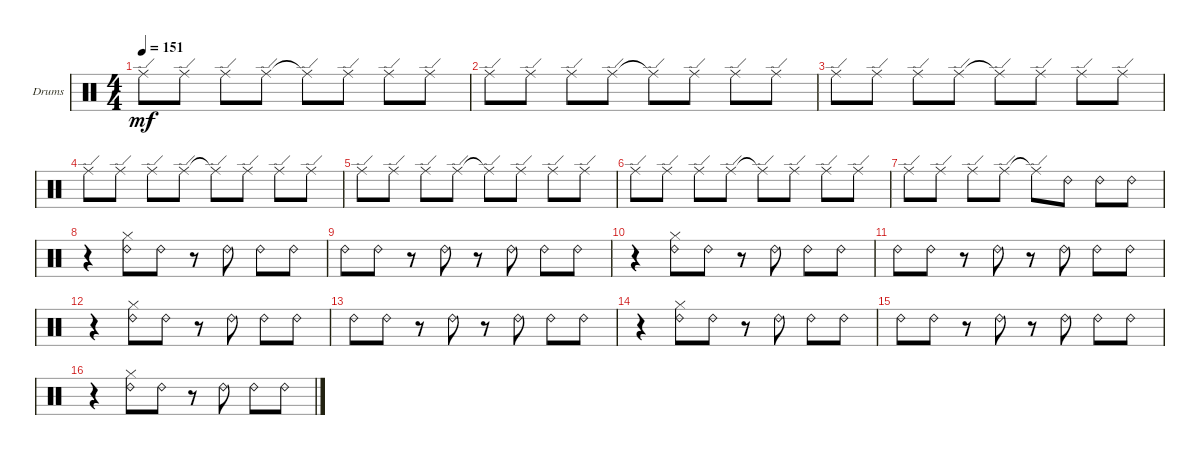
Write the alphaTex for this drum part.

\bracketExtendMode groupsimilarinstruments
\firstSystemTrackNameOrientation horizontal
\otherSystemsTrackNameOrientation horizontal
\track ("Drumkit" "Drums") {instrument percussion}
\staff {score}
\articulation defaults
\ts (4 4)
\tempo 151
\clef neutral
\ks aminor "Ride (edge)".8{dy mf} "Ride (edge)".8 "Ride (edge)".8 "Ride (edge)".8 "Ride (edge)"{t}.8 "Ride (edge)".8 "Ride (edge)".8 "Ride (edge)".8
|
"Ride (edge)".8 "Ride (edge)".8 "Ride (edge)".8 "Ride (edge)".8 "Ride (edge)"{t}.8 "Ride (edge)".8 "Ride (edge)".8 "Ride (edge)".8 |
"Ride (edge)".8 "Ride (edge)".8 "Ride (edge)".8 "Ride (edge)".8 "Ride (edge)"{t}.8 "Ride (edge)".8 "Ride (edge)".8 "Ride (edge)".8 |
"Ride (edge)".8 "Ride (edge)".8 "Ride (edge)".8 "Ride (edge)".8 "Ride (edge)"{t}.8 "Ride (edge)".8 "Ride (edge)".8 "Ride (edge)".8 |
"Ride (edge)".8 "Ride (edge)".8 "Ride (edge)".8 "Ride (edge)".8 "Ride (edge)"{t}.8 "Ride (edge)".8 "Ride (edge)".8 "Ride (edge)".8 |
"Ride (edge)".8 "Ride (edge)".8 "Ride (edge)".8 "Ride (edge)".8 "Ride (edge)"{t}.8 "Ride (edge)".8 "Ride (edge)".8 "Ride (edge)".8 |
"Ride (edge)".8 "Ride (edge)".8 "Ride (edge)".8 "Ride (edge)".8 "Ride (edge)"{t}.8 "Ride (bell) 2".8 "Ride (bell) 2".8 "Ride (bell) 2".8 |
r.4 ("Ride (bell) 2" "Hi-Hat (closed)").8 "Ride (bell) 2".8 r.8 "Ride (bell) 2".8 "Ride (bell) 2".8 "Ride (bell) 2".8 |
"Ride (bell) 2".8 "Ride (bell) 2".8 r.8 "Ride (bell) 2".8 r.8 "Ride (bell) 2".8 "Ride (bell) 2".8 "Ride (bell) 2".8 |
r.4 ("Ride (bell) 2" "Hi-Hat (closed)").8 "Ride (bell) 2".8 r.8 "Ride (bell) 2".8 "Ride (bell) 2".8 "Ride (bell) 2".8 |
"Ride (bell) 2".8 "Ride (bell) 2".8 r.8 "Ride (bell) 2".8 r.8 "Ride (bell) 2".8 "Ride (bell) 2".8 "Ride (bell) 2".8 |
r.4 ("Ride (bell) 2" "Hi-Hat (closed)").8 "Ride (bell) 2".8 r.8 "Ride (bell) 2".8 "Ride (bell) 2".8 "Ride (bell) 2".8 |
"Ride (bell) 2".8 "Ride (bell) 2".8 r.8 "Ride (bell) 2".8 r.8 "Ride (bell) 2".8 "Ride (bell) 2".8 "Ride (bell) 2".8 |
r.4 ("Ride (bell) 2" "Hi-Hat (closed)").8 "Ride (bell) 2".8 r.8 "Ride (bell) 2".8 "Ride (bell) 2".8 "Ride (bell) 2".8 |
"Ride (bell) 2".8 "Ride (bell) 2".8 r.8 "Ride (bell) 2".8 r.8 "Ride (bell) 2".8 "Ride (bell) 2".8 "Ride (bell) 2".8 |
r.4 ("Ride (bell) 2" "Hi-Hat (closed)").8 "Ride (bell) 2".8 r.8 "Ride (bell) 2".8 "Ride (bell) 2".8 "Ride (bell) 2".8
